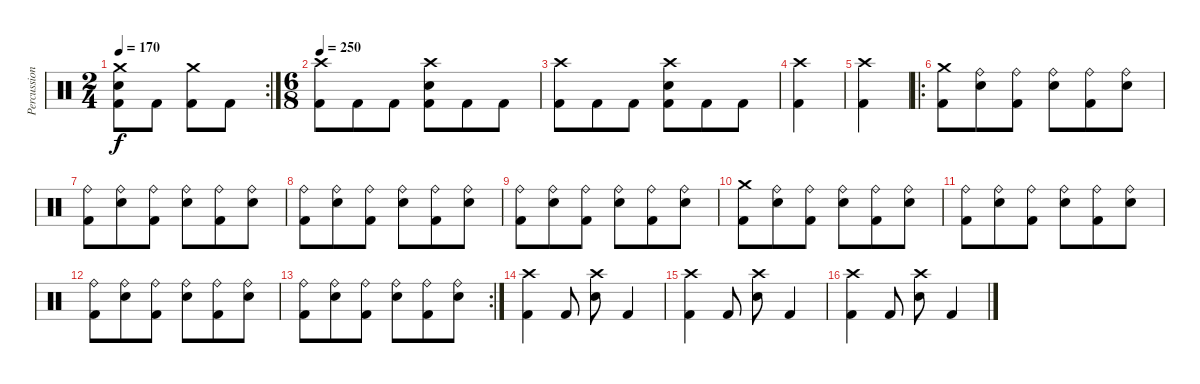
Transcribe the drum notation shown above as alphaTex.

\track ("Percussion" "Percussion") {instrument percussion}
\staff {score}
\articulation defaults
\rc 2
\ts (2 4)
\tempo 170
\clef neutral
\ks c
("Crash medium (hit)" "Electric Snare (hit)" "Kick (hit) 2").8{dy f} "Kick (hit) 2".8 ("Crash medium (hit)" "Kick (hit) 2").8 "Kick (hit) 2".8 |
\ts (6 8)
\tempo 250
("Crash high (hit)" "Kick (hit) 2").8 "Kick (hit) 2".8 "Kick (hit) 2".8 ("Crash high (hit)" "Electric Snare (hit)" "Kick (hit) 2").8 "Kick (hit) 2".8 "Kick (hit) 2".8 |
("Crash high (hit)" "Kick (hit) 2").8 "Kick (hit) 2".8 "Kick (hit) 2".8 ("Crash high (hit)" "Electric Snare (hit)" "Kick (hit) 2").8 "Kick (hit) 2".8 "Kick (hit) 2".8 |
("Crash high (hit)" "Kick (hit) 2").4 |
("Crash high (hit)" "Kick (hit) 2").4 |
\ro
("Crash medium (hit)" "Kick (hit) 2").8 ("Ride (bell)" "Electric Snare (hit)").8 ("Ride (bell)" "Kick (hit) 2").8 ("Ride (bell)" "Electric Snare (hit)").8 ("Ride (bell)" "Kick (hit) 2").8 ("Ride (bell)" "Electric Snare (hit)").8 |
("Ride (bell)" "Kick (hit) 2").8 ("Ride (bell)" "Electric Snare (hit)").8 ("Ride (bell)" "Kick (hit) 2").8 ("Ride (bell)" "Electric Snare (hit)").8 ("Ride (bell)" "Kick (hit) 2").8 ("Ride (bell)" "Electric Snare (hit)").8 |
("Ride (bell)" "Kick (hit) 2").8 ("Ride (bell)" "Electric Snare (hit)").8 ("Ride (bell)" "Kick (hit) 2").8 ("Ride (bell)" "Electric Snare (hit)").8 ("Ride (bell)" "Kick (hit) 2").8 ("Ride (bell)" "Electric Snare (hit)").8 |
("Ride (bell)" "Kick (hit) 2").8 ("Ride (bell)" "Electric Snare (hit)").8 ("Ride (bell)" "Kick (hit) 2").8 ("Ride (bell)" "Electric Snare (hit)").8 ("Ride (bell)" "Kick (hit) 2").8 ("Ride (bell)" "Electric Snare (hit)").8 |
("Crash medium (hit)" "Kick (hit) 2").8 ("Ride (bell)" "Electric Snare (hit)").8 ("Ride (bell)" "Kick (hit) 2").8 ("Ride (bell)" "Electric Snare (hit)").8 ("Ride (bell)" "Kick (hit) 2").8 ("Ride (bell)" "Electric Snare (hit)").8 |
("Ride (bell)" "Kick (hit) 2").8 ("Ride (bell)" "Electric Snare (hit)").8 ("Ride (bell)" "Kick (hit) 2").8 ("Ride (bell)" "Electric Snare (hit)").8 ("Ride (bell)" "Kick (hit) 2").8 ("Ride (bell)" "Electric Snare (hit)").8 |
("Ride (bell)" "Kick (hit) 2").8 ("Ride (bell)" "Electric Snare (hit)").8 ("Ride (bell)" "Kick (hit) 2").8 ("Ride (bell)" "Electric Snare (hit)").8 ("Ride (bell)" "Kick (hit) 2").8 ("Ride (bell)" "Electric Snare (hit)").8 |
\rc 2
("Ride (bell)" "Kick (hit) 2").8 ("Ride (bell)" "Electric Snare (hit)").8 ("Ride (bell)" "Kick (hit) 2").8 ("Ride (bell)" "Electric Snare (hit)").8 ("Ride (bell)" "Kick (hit) 2").8 ("Ride (bell)" "Electric Snare (hit)").8 |
("Crash high (hit)" "Kick (hit) 2").4 "Kick (hit) 2".8 ("Crash high (hit)" "Electric Snare (hit)").8 "Kick (hit) 2".4 |
("Crash high (hit)" "Kick (hit) 2").4 "Kick (hit) 2".8 ("Crash high (hit)" "Electric Snare (hit)").8 "Kick (hit) 2".4 |
("Crash high (hit)" "Kick (hit) 2").4 "Kick (hit) 2".8 ("Crash high (hit)" "Electric Snare (hit)").8 "Kick (hit) 2".4
